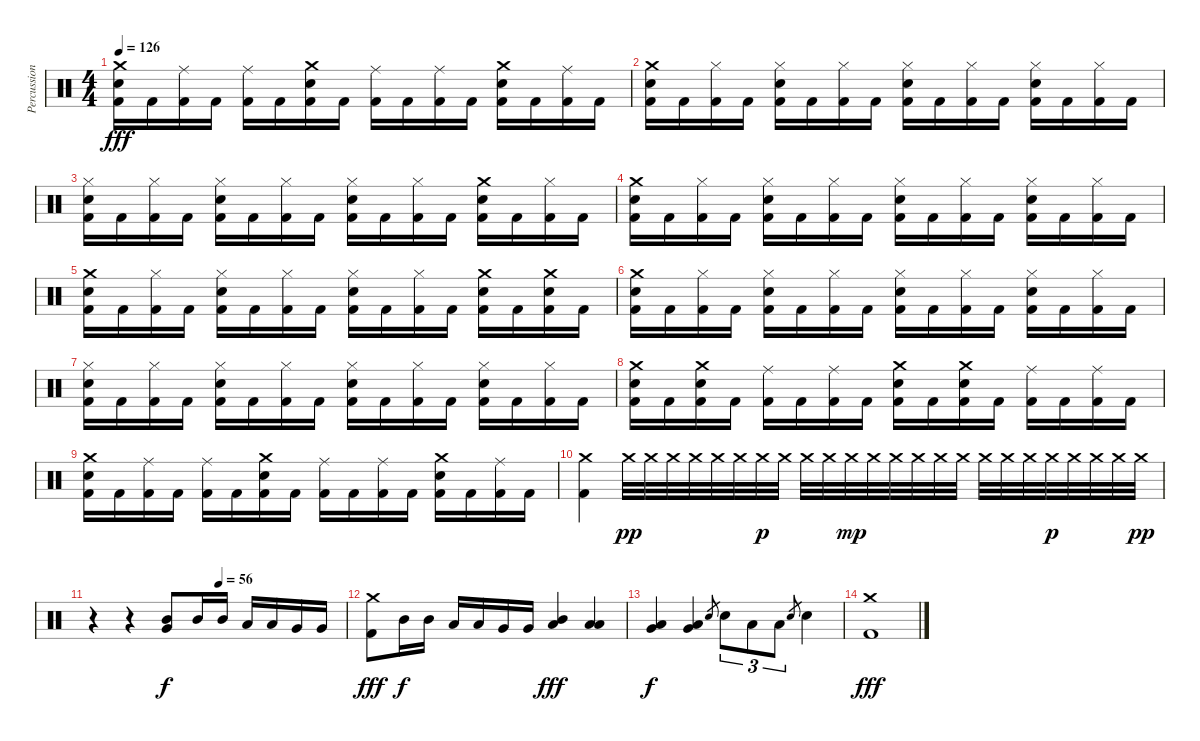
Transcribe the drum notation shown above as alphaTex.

\track ("Percussion" "Percussion") {instrument percussion}
\staff {score}
\articulation defaults
\ts (4 4)
\tempo 126
\clef neutral
\ks c
("Crash medium (hit)" "Electric Snare (hit)" "Kick (hit) 2").16{dy fff} "Kick (hit) 2".16 ("Ride (middle)" "Kick (hit) 2").16 "Kick (hit) 2".16 ("Ride (middle)" "Kick (hit) 2").16 "Kick (hit) 2".16 ("Crash medium (hit)" "Electric Snare (hit)" "Kick (hit) 2").16 "Kick (hit) 2".16 ("Ride (middle)" "Kick (hit) 2").16 "Kick (hit) 2".16 ("Ride (middle)" "Kick (hit) 2").16 "Kick (hit) 2".16 ("Crash medium (hit)" "Electric Snare (hit)" "Kick (hit) 2").16 "Kick (hit) 2".16 ("Ride (middle)" "Kick (hit) 2").16 "Kick (hit) 2".16 |
("Crash medium (hit)" "Electric Snare (hit)" "Kick (hit) 2").16 "Kick (hit) 2".16 ("Hi-Hat (closed)" "Kick (hit) 2").16 "Kick (hit) 2".16 ("Hi-Hat (closed)" "Electric Snare (hit)" "Kick (hit) 2").16 "Kick (hit) 2".16 ("Hi-Hat (closed)" "Kick (hit) 2").16 "Kick (hit) 2".16 ("Hi-Hat (closed)" "Electric Snare (hit)" "Kick (hit) 2").16 "Kick (hit) 2".16 ("Hi-Hat (closed)" "Kick (hit) 2").16 "Kick (hit) 2".16 ("Hi-Hat (closed)" "Electric Snare (hit)" "Kick (hit) 2").16 "Kick (hit) 2".16 ("Hi-Hat (closed)" "Kick (hit) 2").16 "Kick (hit) 2".16 |
("Hi-Hat (closed)" "Electric Snare (hit)" "Kick (hit) 2").16 "Kick (hit) 2".16 ("Hi-Hat (closed)" "Kick (hit) 2").16 "Kick (hit) 2".16 ("Hi-Hat (closed)" "Electric Snare (hit)" "Kick (hit) 2").16 "Kick (hit) 2".16 ("Hi-Hat (closed)" "Kick (hit) 2").16 "Kick (hit) 2".16 ("Hi-Hat (closed)" "Electric Snare (hit)" "Kick (hit) 2").16 "Kick (hit) 2".16 ("Hi-Hat (closed)" "Kick (hit) 2").16 "Kick (hit) 2".16 ("Crash medium (hit)" "Electric Snare (hit)" "Kick (hit) 2").16 "Kick (hit) 2".16 ("Hi-Hat (closed)" "Kick (hit) 2").16 "Kick (hit) 2".16 |
("Crash medium (hit)" "Electric Snare (hit)" "Kick (hit) 2").16 "Kick (hit) 2".16 ("Hi-Hat (closed)" "Kick (hit) 2").16 "Kick (hit) 2".16 ("Hi-Hat (closed)" "Electric Snare (hit)" "Kick (hit) 2").16 "Kick (hit) 2".16 ("Hi-Hat (closed)" "Kick (hit) 2").16 "Kick (hit) 2".16 ("Hi-Hat (closed)" "Electric Snare (hit)" "Kick (hit) 2").16 "Kick (hit) 2".16 ("Hi-Hat (closed)" "Kick (hit) 2").16 "Kick (hit) 2".16 ("Hi-Hat (closed)" "Electric Snare (hit)" "Kick (hit) 2").16 "Kick (hit) 2".16 ("Hi-Hat (closed)" "Kick (hit) 2").16 "Kick (hit) 2".16 |
("Crash medium (hit)" "Electric Snare (hit)" "Kick (hit) 2").16 "Kick (hit) 2".16 ("Hi-Hat (closed)" "Kick (hit) 2").16 "Kick (hit) 2".16 ("Hi-Hat (closed)" "Electric Snare (hit)" "Kick (hit) 2").16 "Kick (hit) 2".16 ("Hi-Hat (closed)" "Kick (hit) 2").16 "Kick (hit) 2".16 ("Hi-Hat (closed)" "Electric Snare (hit)" "Kick (hit) 2").16 "Kick (hit) 2".16 ("Hi-Hat (closed)" "Kick (hit) 2").16 "Kick (hit) 2".16 ("Crash medium (hit)" "Electric Snare (hit)" "Kick (hit) 2").16 "Kick (hit) 2".16 ("Crash medium (hit)" "Electric Snare (hit)" "Kick (hit) 2").16 "Kick (hit) 2".16 |
("Crash medium (hit)" "Electric Snare (hit)" "Kick (hit) 2").16 "Kick (hit) 2".16 ("Hi-Hat (closed)" "Kick (hit) 2").16 "Kick (hit) 2".16 ("Hi-Hat (closed)" "Electric Snare (hit)" "Kick (hit) 2").16 "Kick (hit) 2".16 ("Hi-Hat (closed)" "Kick (hit) 2").16 "Kick (hit) 2".16 ("Hi-Hat (closed)" "Electric Snare (hit)" "Kick (hit) 2").16 "Kick (hit) 2".16 ("Hi-Hat (closed)" "Kick (hit) 2").16 "Kick (hit) 2".16 ("Hi-Hat (closed)" "Electric Snare (hit)" "Kick (hit) 2").16 "Kick (hit) 2".16 ("Hi-Hat (closed)" "Kick (hit) 2").16 "Kick (hit) 2".16 |
("Hi-Hat (closed)" "Electric Snare (hit)" "Kick (hit) 2").16 "Kick (hit) 2".16 ("Hi-Hat (closed)" "Kick (hit) 2").16 "Kick (hit) 2".16 ("Hi-Hat (closed)" "Electric Snare (hit)" "Kick (hit) 2").16 "Kick (hit) 2".16 ("Hi-Hat (closed)" "Kick (hit) 2").16 "Kick (hit) 2".16 ("Hi-Hat (closed)" "Electric Snare (hit)" "Kick (hit) 2").16 "Kick (hit) 2".16 ("Hi-Hat (closed)" "Kick (hit) 2").16 "Kick (hit) 2".16 ("Hi-Hat (closed)" "Electric Snare (hit)" "Kick (hit) 2").16 "Kick (hit) 2".16 ("Hi-Hat (closed)" "Kick (hit) 2").16 "Kick (hit) 2".16 |
("Crash medium (hit)" "Electric Snare (hit)" "Kick (hit) 2").16 "Kick (hit) 2".16 ("Crash medium (hit)" "Electric Snare (hit)" "Kick (hit) 2").16 "Kick (hit) 2".16 ("Ride (middle)" "Kick (hit) 2").16 "Kick (hit) 2".16 ("Ride (middle)" "Kick (hit) 2").16 "Kick (hit) 2".16 ("Crash medium (hit)" "Electric Snare (hit)" "Kick (hit) 2").16 "Kick (hit) 2".16 ("Crash medium (hit)" "Electric Snare (hit)" "Kick (hit) 2").16 "Kick (hit) 2".16 ("Ride (middle)" "Kick (hit) 2").16 "Kick (hit) 2".16 ("Ride (middle)" "Kick (hit) 2").16 "Kick (hit) 2".16 |
("Crash medium (hit)" "Electric Snare (hit)" "Kick (hit) 2").16 "Kick (hit) 2".16 ("Ride (middle)" "Kick (hit) 2").16 "Kick (hit) 2".16 ("Ride (middle)" "Kick (hit) 2").16 "Kick (hit) 2".16 ("Crash medium (hit)" "Electric Snare (hit)" "Kick (hit) 2").16 "Kick (hit) 2".16 ("Ride (middle)" "Kick (hit) 2").16 "Kick (hit) 2".16 ("Ride (middle)" "Kick (hit) 2").16 "Kick (hit) 2".16 ("Crash medium (hit)" "Electric Snare (hit)" "Kick (hit) 2").16 "Kick (hit) 2".16 ("Ride (middle)" "Kick (hit) 2").16 "Kick (hit) 2".16 |
("Crash medium (hit)" "Kick (hit) 2").4 "Crash medium (hit)".32{dy pp} "Crash medium (hit)".32 "Crash medium (hit)".32 "Crash medium (hit)".32 "Crash medium (hit)".32 "Crash medium (hit)".32 "Crash medium (hit)".32{dy p} "Crash medium (hit)".32 "Crash medium (hit)".32 "Crash medium (hit)".32 "Crash medium (hit)".32{dy mp} "Crash medium (hit)".32 "Crash medium (hit)".32 "Crash medium (hit)".32 "Crash medium (hit)".32 "Crash medium (hit)".32 "Crash medium (hit)".32 "Crash medium (hit)".32 "Crash medium (hit)".32 "Crash medium (hit)".32{dy p} "Crash medium (hit)".32 "Crash medium (hit)".32 "Crash medium (hit)".32 "Crash medium (hit)".32{dy pp} |
\tempo (56 0.5)
r.4 r.4 ("Very Low Tom (hit)" "Mid Tom (hit)").8{dy f} "Mid Tom (hit)".16 "Mid Tom (hit)".16 "Low Tom (hit)".16 "Low Tom (hit)".16 "Very Low Tom (hit)".16 "Very Low Tom (hit)".16 |
("Crash medium (hit)" "Kick (hit) 2").8{dy fff} "Mid Tom (hit)".16{dy f} "Mid Tom (hit)".16 "Low Tom (hit)".16 "Low Tom (hit)".16 "Very Low Tom (hit)".16 "Very Low Tom (hit)".16 ("Mid Tom (hit)" "Low Tom (hit)").4{dy fff} ("Low Tom (hit)" "Low Tom (hit)").4 |
("Very Low Tom (hit)" "Low Floor Tom (hit)").4{dy f} ("Very Low Tom (hit)" "Low Floor Tom (hit)").4 "Electric Snare (hit)".8{gr} "Electric Snare (hit)".8{tu (3 2)} "Low Tom (hit)".8{tu (3 2)} "Low Tom (hit)".8{tu (3 2)} "Electric Snare (hit)".8{gr} "Electric Snare (hit)".4 |
("Crash medium (hit)" "Kick (hit) 2").1{dy fff}
